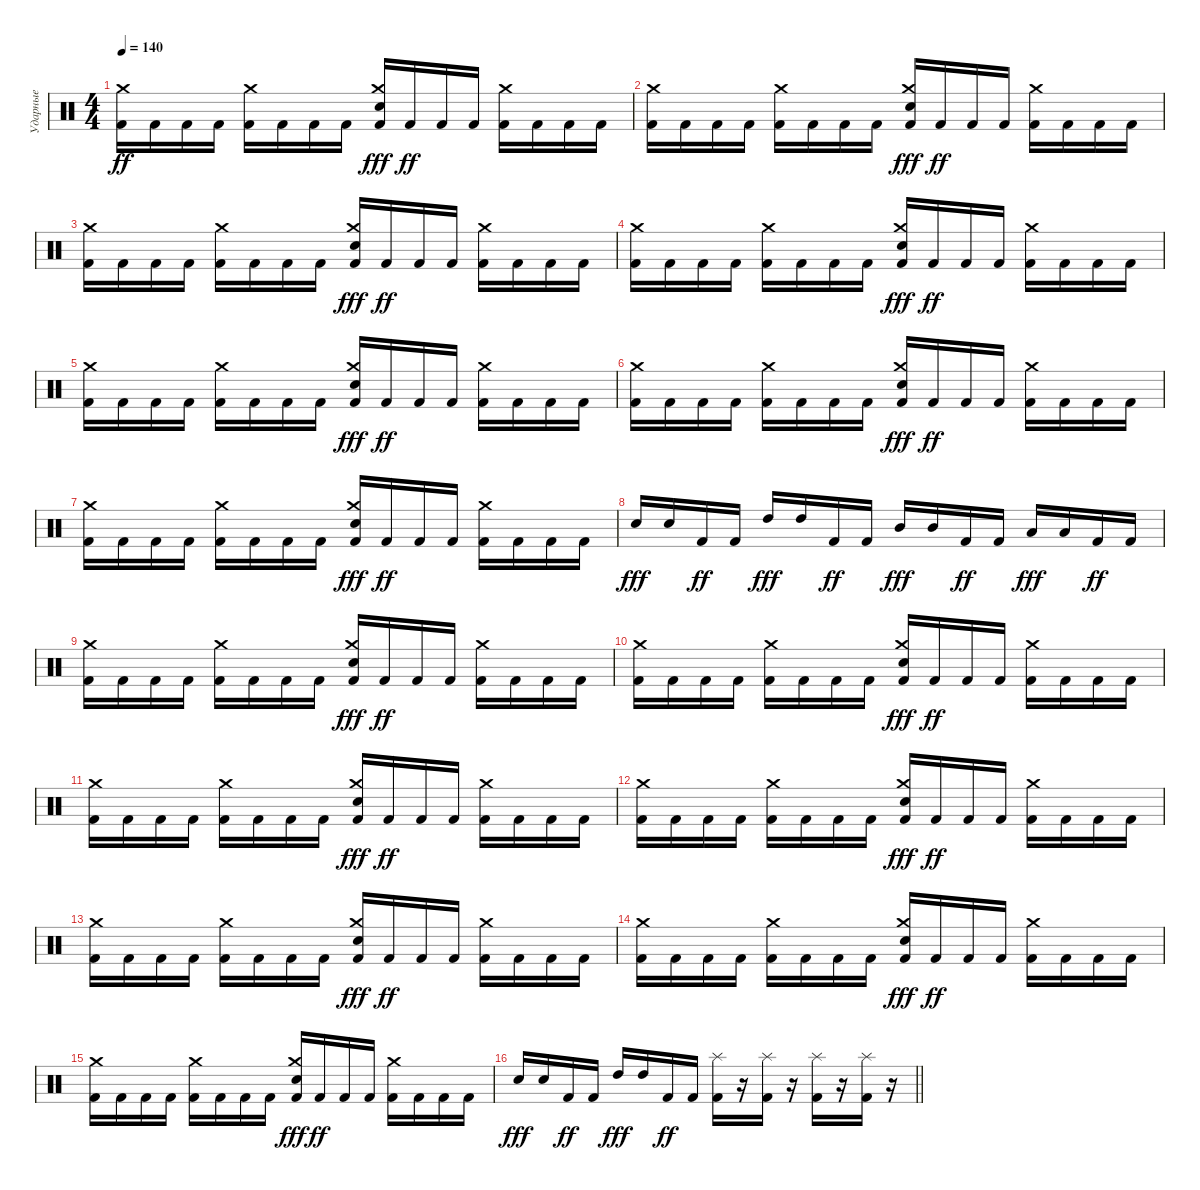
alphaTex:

\track ("Ударные" "Ударные") {instrument percussion}
\staff {score}
\articulation defaults
\ts (4 4)
\tempo 140
\clef neutral
\ks c
("Kick (hit) 2" "Crash medium (hit)").16{dy ff} "Kick (hit) 2".16 "Kick (hit) 2".16 "Kick (hit) 2".16 ("Kick (hit) 2" "Crash medium (hit)").16 "Kick (hit) 2".16 "Kick (hit) 2".16 "Kick (hit) 2".16 ("Kick (hit) 2" "Crash medium (hit)" "Electric Snare (hit)").16{dy fff} "Kick (hit) 2".16{dy ff} "Kick (hit) 2".16 "Kick (hit) 2".16 ("Kick (hit) 2" "Crash medium (hit)").16 "Kick (hit) 2".16 "Kick (hit) 2".16 "Kick (hit) 2".16 |
("Kick (hit) 2" "Crash medium (hit)").16 "Kick (hit) 2".16 "Kick (hit) 2".16 "Kick (hit) 2".16 ("Kick (hit) 2" "Crash medium (hit)").16 "Kick (hit) 2".16 "Kick (hit) 2".16 "Kick (hit) 2".16 ("Kick (hit) 2" "Crash medium (hit)" "Electric Snare (hit)").16{dy fff} "Kick (hit) 2".16{dy ff} "Kick (hit) 2".16 "Kick (hit) 2".16 ("Kick (hit) 2" "Crash medium (hit)").16 "Kick (hit) 2".16 "Kick (hit) 2".16 "Kick (hit) 2".16 |
("Kick (hit) 2" "Crash medium (hit)").16 "Kick (hit) 2".16 "Kick (hit) 2".16 "Kick (hit) 2".16 ("Kick (hit) 2" "Crash medium (hit)").16 "Kick (hit) 2".16 "Kick (hit) 2".16 "Kick (hit) 2".16 ("Kick (hit) 2" "Crash medium (hit)" "Electric Snare (hit)").16{dy fff} "Kick (hit) 2".16{dy ff} "Kick (hit) 2".16 "Kick (hit) 2".16 ("Kick (hit) 2" "Crash medium (hit)").16 "Kick (hit) 2".16 "Kick (hit) 2".16 "Kick (hit) 2".16 |
("Kick (hit) 2" "Crash medium (hit)").16 "Kick (hit) 2".16 "Kick (hit) 2".16 "Kick (hit) 2".16 ("Kick (hit) 2" "Crash medium (hit)").16 "Kick (hit) 2".16 "Kick (hit) 2".16 "Kick (hit) 2".16 ("Kick (hit) 2" "Crash medium (hit)" "Electric Snare (hit)").16{dy fff} "Kick (hit) 2".16{dy ff} "Kick (hit) 2".16 "Kick (hit) 2".16 ("Kick (hit) 2" "Crash medium (hit)").16 "Kick (hit) 2".16 "Kick (hit) 2".16 "Kick (hit) 2".16 |
("Kick (hit) 2" "Crash medium (hit)").16 "Kick (hit) 2".16 "Kick (hit) 2".16 "Kick (hit) 2".16 ("Kick (hit) 2" "Crash medium (hit)").16 "Kick (hit) 2".16 "Kick (hit) 2".16 "Kick (hit) 2".16 ("Kick (hit) 2" "Crash medium (hit)" "Electric Snare (hit)").16{dy fff} "Kick (hit) 2".16{dy ff} "Kick (hit) 2".16 "Kick (hit) 2".16 ("Kick (hit) 2" "Crash medium (hit)").16 "Kick (hit) 2".16 "Kick (hit) 2".16 "Kick (hit) 2".16 |
("Kick (hit) 2" "Crash medium (hit)").16 "Kick (hit) 2".16 "Kick (hit) 2".16 "Kick (hit) 2".16 ("Kick (hit) 2" "Crash medium (hit)").16 "Kick (hit) 2".16 "Kick (hit) 2".16 "Kick (hit) 2".16 ("Kick (hit) 2" "Crash medium (hit)" "Electric Snare (hit)").16{dy fff} "Kick (hit) 2".16{dy ff} "Kick (hit) 2".16 "Kick (hit) 2".16 ("Kick (hit) 2" "Crash medium (hit)").16 "Kick (hit) 2".16 "Kick (hit) 2".16 "Kick (hit) 2".16 |
("Kick (hit) 2" "Crash medium (hit)").16 "Kick (hit) 2".16 "Kick (hit) 2".16 "Kick (hit) 2".16 ("Kick (hit) 2" "Crash medium (hit)").16 "Kick (hit) 2".16 "Kick (hit) 2".16 "Kick (hit) 2".16 ("Kick (hit) 2" "Crash medium (hit)" "Electric Snare (hit)").16{dy fff} "Kick (hit) 2".16{dy ff} "Kick (hit) 2".16 "Kick (hit) 2".16 ("Kick (hit) 2" "Crash medium (hit)").16 "Kick (hit) 2".16 "Kick (hit) 2".16 "Kick (hit) 2".16 |
"Electric Snare (hit)".16{dy fff} "Electric Snare (hit)".16 "Kick (hit) 2".16{dy ff} "Kick (hit) 2".16 "High Tom (hit)".16{dy fff} "High Tom (hit)".16 "Kick (hit) 2".16{dy ff} "Kick (hit) 2".16 "Mid Tom (hit)".16{dy fff} "Mid Tom (hit)".16 "Kick (hit) 2".16{dy ff} "Kick (hit) 2".16 "Low Tom (hit)".16{dy fff} "Low Tom (hit)".16 "Kick (hit) 2".16{dy ff} "Kick (hit) 2".16 |
("Kick (hit) 2" "Crash medium (hit)").16 "Kick (hit) 2".16 "Kick (hit) 2".16 "Kick (hit) 2".16 ("Kick (hit) 2" "Crash medium (hit)").16 "Kick (hit) 2".16 "Kick (hit) 2".16 "Kick (hit) 2".16 ("Kick (hit) 2" "Crash medium (hit)" "Electric Snare (hit)").16{dy fff} "Kick (hit) 2".16{dy ff} "Kick (hit) 2".16 "Kick (hit) 2".16 ("Kick (hit) 2" "Crash medium (hit)").16 "Kick (hit) 2".16 "Kick (hit) 2".16 "Kick (hit) 2".16 |
("Kick (hit) 2" "Crash medium (hit)").16 "Kick (hit) 2".16 "Kick (hit) 2".16 "Kick (hit) 2".16 ("Kick (hit) 2" "Crash medium (hit)").16 "Kick (hit) 2".16 "Kick (hit) 2".16 "Kick (hit) 2".16 ("Kick (hit) 2" "Crash medium (hit)" "Electric Snare (hit)").16{dy fff} "Kick (hit) 2".16{dy ff} "Kick (hit) 2".16 "Kick (hit) 2".16 ("Kick (hit) 2" "Crash medium (hit)").16 "Kick (hit) 2".16 "Kick (hit) 2".16 "Kick (hit) 2".16 |
("Kick (hit) 2" "Crash medium (hit)").16 "Kick (hit) 2".16 "Kick (hit) 2".16 "Kick (hit) 2".16 ("Kick (hit) 2" "Crash medium (hit)").16 "Kick (hit) 2".16 "Kick (hit) 2".16 "Kick (hit) 2".16 ("Kick (hit) 2" "Crash medium (hit)" "Electric Snare (hit)").16{dy fff} "Kick (hit) 2".16{dy ff} "Kick (hit) 2".16 "Kick (hit) 2".16 ("Kick (hit) 2" "Crash medium (hit)").16 "Kick (hit) 2".16 "Kick (hit) 2".16 "Kick (hit) 2".16 |
("Kick (hit) 2" "Crash medium (hit)").16 "Kick (hit) 2".16 "Kick (hit) 2".16 "Kick (hit) 2".16 ("Kick (hit) 2" "Crash medium (hit)").16 "Kick (hit) 2".16 "Kick (hit) 2".16 "Kick (hit) 2".16 ("Kick (hit) 2" "Crash medium (hit)" "Electric Snare (hit)").16{dy fff} "Kick (hit) 2".16{dy ff} "Kick (hit) 2".16 "Kick (hit) 2".16 ("Kick (hit) 2" "Crash medium (hit)").16 "Kick (hit) 2".16 "Kick (hit) 2".16 "Kick (hit) 2".16 |
("Kick (hit) 2" "Crash medium (hit)").16 "Kick (hit) 2".16 "Kick (hit) 2".16 "Kick (hit) 2".16 ("Kick (hit) 2" "Crash medium (hit)").16 "Kick (hit) 2".16 "Kick (hit) 2".16 "Kick (hit) 2".16 ("Kick (hit) 2" "Crash medium (hit)" "Electric Snare (hit)").16{dy fff} "Kick (hit) 2".16{dy ff} "Kick (hit) 2".16 "Kick (hit) 2".16 ("Kick (hit) 2" "Crash medium (hit)").16 "Kick (hit) 2".16 "Kick (hit) 2".16 "Kick (hit) 2".16 |
("Kick (hit) 2" "Crash medium (hit)").16 "Kick (hit) 2".16 "Kick (hit) 2".16 "Kick (hit) 2".16 ("Kick (hit) 2" "Crash medium (hit)").16 "Kick (hit) 2".16 "Kick (hit) 2".16 "Kick (hit) 2".16 ("Kick (hit) 2" "Crash medium (hit)" "Electric Snare (hit)").16{dy fff} "Kick (hit) 2".16{dy ff} "Kick (hit) 2".16 "Kick (hit) 2".16 ("Kick (hit) 2" "Crash medium (hit)").16 "Kick (hit) 2".16 "Kick (hit) 2".16 "Kick (hit) 2".16 |
("Kick (hit) 2" "Crash medium (hit)").16 "Kick (hit) 2".16 "Kick (hit) 2".16 "Kick (hit) 2".16 ("Kick (hit) 2" "Crash medium (hit)").16 "Kick (hit) 2".16 "Kick (hit) 2".16 "Kick (hit) 2".16 ("Kick (hit) 2" "Crash medium (hit)" "Electric Snare (hit)").16{dy fff} "Kick (hit) 2".16{dy ff} "Kick (hit) 2".16 "Kick (hit) 2".16 ("Kick (hit) 2" "Crash medium (hit)").16 "Kick (hit) 2".16 "Kick (hit) 2".16 "Kick (hit) 2".16 |
\barLineRight lightlight "Electric Snare (hit)".16{dy fff} "Electric Snare (hit)".16 "Kick (hit) 2".16{dy ff} "Kick (hit) 2".16 "High Tom (hit)".16{dy fff} "High Tom (hit)".16 "Kick (hit) 2".16{dy ff} "Kick (hit) 2".16
("Kick (hit) 2" "Splash (hit)").16 r.16 ("Kick (hit) 2" "Splash (hit)").16 r.16 ("Kick (hit) 2" "Splash (hit)").16 r.16 ("Kick (hit) 2" "Splash (hit)").16 r.16
